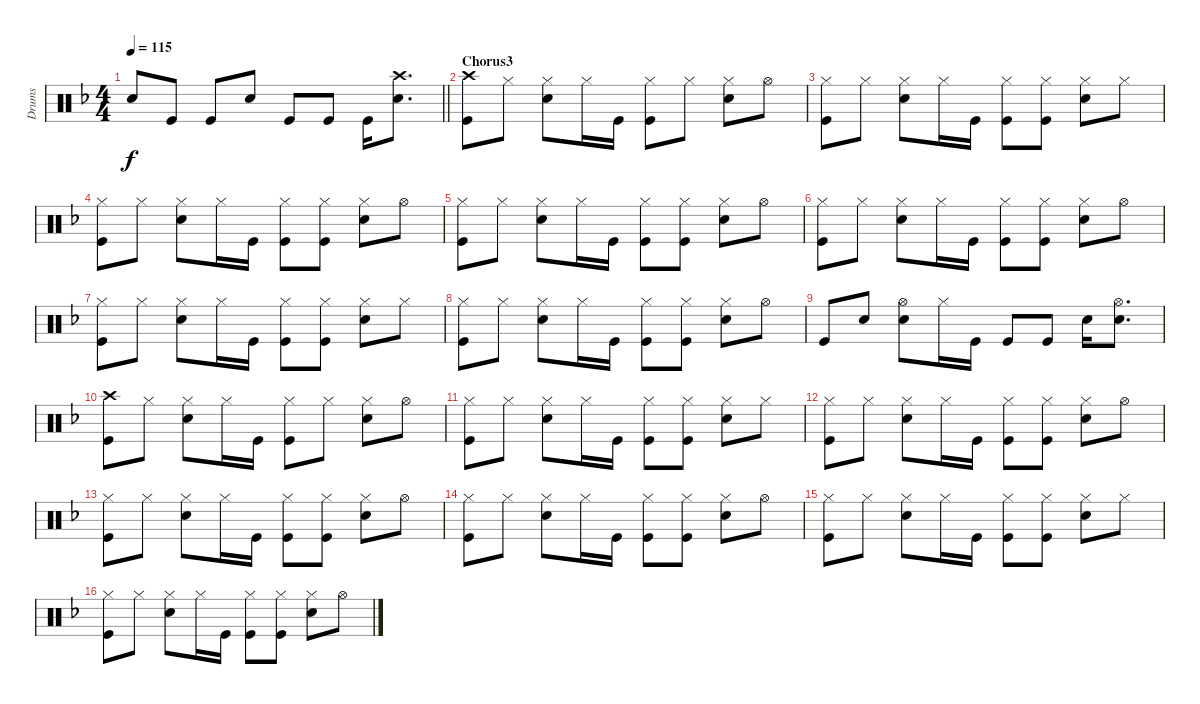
\track ("Drums" "Drums") {instrument percussion}
\staff {score}
\articulation defaults
\ts (4 4)
\tempo 115
\clef neutral
\barLineRight lightlight
\ks f "Snare (hit) 2".8{dy f} "Kick (hit)".8 "Kick (hit)".8 "Snare (hit) 2".8 "Kick (hit)".8 "Kick (hit)".8 "Kick (hit)".16
("Snare (hit) 2" "Crash high (hit)").8{d} |
\section ("" "Chorus3")
("Crash high (hit)" "Kick (hit)").8 "Hi-Hat (closed)".8 ("Snare (hit) 2" "Hi-Hat (closed)").8 "Hi-Hat (closed)".16 "Kick (hit)".16 ("Hi-Hat (closed)" "Kick (hit)").8 "Hi-Hat (closed)".8 ("Hi-Hat (closed)" "Snare (hit) 2").8 "Hi-Hat (open)".8 |
("Hi-Hat (closed)" "Kick (hit)").8 "Hi-Hat (closed)".8 ("Hi-Hat (closed)" "Snare (hit) 2").8 "Hi-Hat (closed)".16 "Kick (hit)".16 ("Hi-Hat (closed)" "Kick (hit)").8 ("Hi-Hat (closed)" "Kick (hit)").8 ("Hi-Hat (closed)" "Snare (hit) 2").8 "Hi-Hat (closed)".8 |
("Hi-Hat (closed)" "Kick (hit)").8 "Hi-Hat (closed)".8 ("Hi-Hat (closed)" "Snare (hit) 2").8 "Hi-Hat (closed)".16 "Kick (hit)".16 ("Hi-Hat (closed)" "Kick (hit)").8 ("Hi-Hat (closed)" "Kick (hit)").8 ("Hi-Hat (closed)" "Snare (hit) 2").8 "Hi-Hat (open)".8 |
("Hi-Hat (closed)" "Kick (hit)").8 "Hi-Hat (closed)".8 ("Hi-Hat (closed)" "Snare (hit) 2").8 "Hi-Hat (closed)".16 "Kick (hit)".16 ("Hi-Hat (closed)" "Kick (hit)").8 ("Hi-Hat (closed)" "Kick (hit)").8 ("Hi-Hat (closed)" "Snare (hit) 2").8 "Hi-Hat (open)".8 |
("Hi-Hat (closed)" "Kick (hit)").8 "Hi-Hat (closed)".8 ("Hi-Hat (closed)" "Snare (hit) 2").8 "Hi-Hat (closed)".16 "Kick (hit)".16 ("Hi-Hat (closed)" "Kick (hit)").8 ("Hi-Hat (closed)" "Kick (hit)").8 ("Hi-Hat (closed)" "Snare (hit) 2").8 "Hi-Hat (open)".8 |
("Hi-Hat (closed)" "Kick (hit)").8 "Hi-Hat (closed)".8 ("Hi-Hat (closed)" "Snare (hit) 2").8 "Hi-Hat (closed)".16 "Kick (hit)".16 ("Hi-Hat (closed)" "Kick (hit)").8 ("Hi-Hat (closed)" "Kick (hit)").8 ("Hi-Hat (closed)" "Snare (hit) 2").8 "Hi-Hat (closed)".8 |
("Hi-Hat (closed)" "Kick (hit)").8 "Hi-Hat (closed)".8 ("Hi-Hat (closed)" "Snare (hit) 2").8 "Hi-Hat (closed)".16 "Kick (hit)".16 ("Hi-Hat (closed)" "Kick (hit)").8 ("Hi-Hat (closed)" "Kick (hit)").8 ("Hi-Hat (closed)" "Snare (hit) 2").8 "Hi-Hat (open)".8 |
"Kick (hit)".8 "Snare (hit) 2".8 ("Snare (hit) 2" "Hi-Hat (open)").8 "Hi-Hat (closed)".16 "Kick (hit)".16 "Kick (hit)".8 "Kick (hit)".8 "Snare (hit) 2".16 ("Snare (hit) 2" "Hi-Hat (open)").8{d} |
("Crash high (hit)" "Kick (hit)").8 "Hi-Hat (closed)".8 ("Snare (hit) 2" "Hi-Hat (closed)").8 "Hi-Hat (closed)".16 "Kick (hit)".16 ("Hi-Hat (closed)" "Kick (hit)").8 "Hi-Hat (closed)".8 ("Hi-Hat (closed)" "Snare (hit) 2").8 "Hi-Hat (open)".8 |
("Hi-Hat (closed)" "Kick (hit)").8 "Hi-Hat (closed)".8 ("Hi-Hat (closed)" "Snare (hit) 2").8 "Hi-Hat (closed)".16 "Kick (hit)".16 ("Hi-Hat (closed)" "Kick (hit)").8 ("Hi-Hat (closed)" "Kick (hit)").8 ("Hi-Hat (closed)" "Snare (hit) 2").8 "Hi-Hat (closed)".8 |
("Hi-Hat (closed)" "Kick (hit)").8 "Hi-Hat (closed)".8 ("Hi-Hat (closed)" "Snare (hit) 2").8 "Hi-Hat (closed)".16 "Kick (hit)".16 ("Hi-Hat (closed)" "Kick (hit)").8 ("Hi-Hat (closed)" "Kick (hit)").8 ("Hi-Hat (closed)" "Snare (hit) 2").8 "Hi-Hat (open)".8 |
("Hi-Hat (closed)" "Kick (hit)").8 "Hi-Hat (closed)".8 ("Hi-Hat (closed)" "Snare (hit) 2").8 "Hi-Hat (closed)".16 "Kick (hit)".16 ("Hi-Hat (closed)" "Kick (hit)").8 ("Hi-Hat (closed)" "Kick (hit)").8 ("Hi-Hat (closed)" "Snare (hit) 2").8 "Hi-Hat (open)".8 |
("Hi-Hat (closed)" "Kick (hit)").8 "Hi-Hat (closed)".8 ("Hi-Hat (closed)" "Snare (hit) 2").8 "Hi-Hat (closed)".16 "Kick (hit)".16 ("Hi-Hat (closed)" "Kick (hit)").8 ("Hi-Hat (closed)" "Kick (hit)").8 ("Hi-Hat (closed)" "Snare (hit) 2").8 "Hi-Hat (open)".8 |
("Hi-Hat (closed)" "Kick (hit)").8 "Hi-Hat (closed)".8 ("Hi-Hat (closed)" "Snare (hit) 2").8 "Hi-Hat (closed)".16 "Kick (hit)".16 ("Hi-Hat (closed)" "Kick (hit)").8 ("Hi-Hat (closed)" "Kick (hit)").8 ("Hi-Hat (closed)" "Snare (hit) 2").8 "Hi-Hat (closed)".8 |
("Hi-Hat (closed)" "Kick (hit)").8 "Hi-Hat (closed)".8 ("Hi-Hat (closed)" "Snare (hit) 2").8 "Hi-Hat (closed)".16 "Kick (hit)".16 ("Hi-Hat (closed)" "Kick (hit)").8 ("Hi-Hat (closed)" "Kick (hit)").8 ("Hi-Hat (closed)" "Snare (hit) 2").8 "Hi-Hat (open)".8
